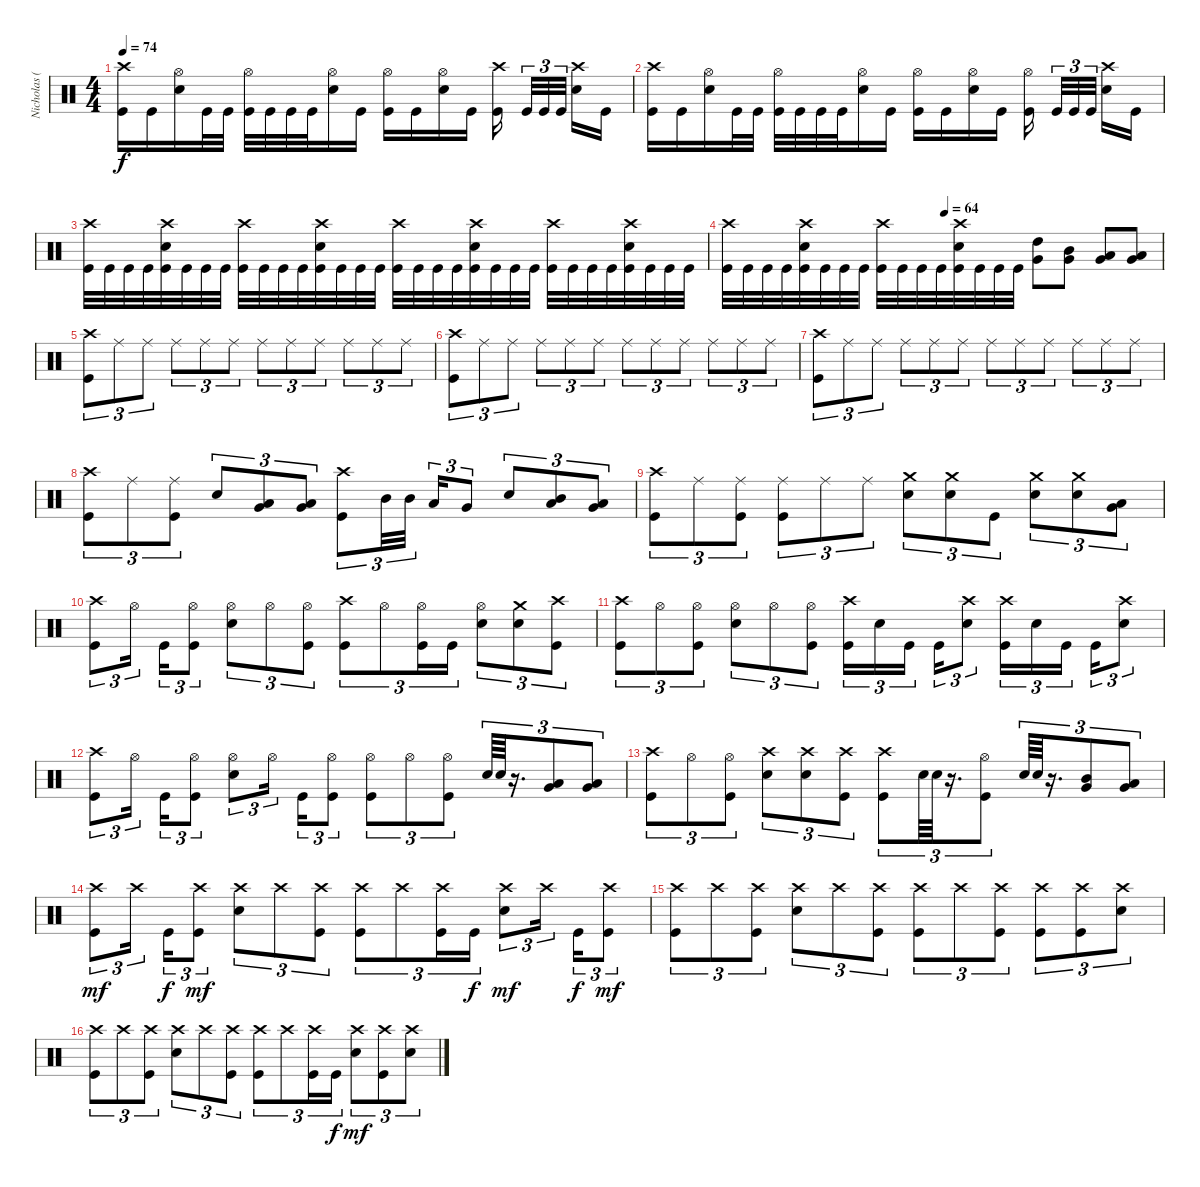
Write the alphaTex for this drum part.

\track ("Nicholas (Drums)" "Nicholas (") {instrument percussion}
\staff {score}
\articulation defaults
\ts (4 4)
\tempo 74
\clef neutral
\ks c
("Crash high (hit)" "Kick (hit)").16{dy f} "Kick (hit)".16 ("Hi-Hat (open)" "Electric Snare (hit)").16 "Kick (hit)".32 "Kick (hit)".32 ("Hi-Hat (open)" "Kick (hit)").32 "Kick (hit)".32 "Kick (hit)".32 "Kick (hit)".32 ("Hi-Hat (open)" "Electric Snare (hit)").16 "Kick (hit)".16 ("Hi-Hat (open)" "Kick (hit)").16 "Kick (hit)".16 ("Hi-Hat (open)" "Electric Snare (hit)").16 "Kick (hit)".16 ("Crash high (hit)" "Kick (hit)").16 "Kick (hit)".32{tu (3 2)} "Kick (hit)".32{tu (3 2)} "Kick (hit)".32{tu (3 2)} ("Crash high (hit)" "Electric Snare (hit)").16 "Kick (hit)".16 |
("Crash high (hit)" "Kick (hit)").16 "Kick (hit)".16 ("Hi-Hat (open)" "Electric Snare (hit)").16 "Kick (hit)".32 "Kick (hit)".32 ("Hi-Hat (open)" "Kick (hit)").32 "Kick (hit)".32 "Kick (hit)".32 "Kick (hit)".32 ("Hi-Hat (open)" "Electric Snare (hit)").16 "Kick (hit)".16 ("Hi-Hat (open)" "Kick (hit)").16 "Kick (hit)".16 ("Hi-Hat (open)" "Electric Snare (hit)").16 "Kick (hit)".16 ("Hi-Hat (open)" "Kick (hit)").16 "Kick (hit)".32{tu (3 2)} "Kick (hit)".32{tu (3 2)} "Kick (hit)".32{tu (3 2)} ("Crash high (hit)" "Electric Snare (hit)").16 "Kick (hit)".16 |
("Crash high (hit)" "Kick (hit)").32 "Kick (hit)".32 "Kick (hit)".32 "Kick (hit)".32 ("Crash high (hit)" "Electric Snare (hit)" "Kick (hit)").32 "Kick (hit)".32 "Kick (hit)".32 "Kick (hit)".32 ("Crash high (hit)" "Kick (hit)").32 "Kick (hit)".32 "Kick (hit)".32 "Kick (hit)".32 ("Crash high (hit)" "Electric Snare (hit)" "Kick (hit)").32 "Kick (hit)".32 "Kick (hit)".32 "Kick (hit)".32 ("Crash high (hit)" "Kick (hit)").32 "Kick (hit)".32 "Kick (hit)".32 "Kick (hit)".32 ("Crash high (hit)" "Electric Snare (hit)" "Kick (hit)").32 "Kick (hit)".32 "Kick (hit)".32 "Kick (hit)".32 ("Crash high (hit)" "Kick (hit)").32 "Kick (hit)".32 "Kick (hit)".32 "Kick (hit)".32 ("Crash high (hit)" "Electric Snare (hit)" "Kick (hit)").32 "Kick (hit)".32 "Kick (hit)".32 "Kick (hit)".32 |
\tempo (64 0.5)
("Crash high (hit)" "Kick (hit)").32 "Kick (hit)".32 "Kick (hit)".32 "Kick (hit)".32 ("Crash high (hit)" "Electric Snare (hit)" "Kick (hit)").32 "Kick (hit)".32 "Kick (hit)".32 "Kick (hit)".32 ("Crash high (hit)" "Kick (hit)").32 "Kick (hit)".32 "Kick (hit)".32 "Kick (hit)".32 ("Crash high (hit)" "Electric Snare (hit)" "Kick (hit)").32 "Kick (hit)".32 "Kick (hit)".32 "Kick (hit)".32 ("High Tom (hit)" "Very Low Tom (hit)").8{bd 60} ("Mid Tom (hit)" "Very Low Tom (hit)").8{bd 60} ("Low Tom (hit)" "Very Low Tom (hit)").8{bd 60} ("Low Tom (hit)" "Very Low Tom (hit)").8{bd 60} |
("Crash high (hit)" "Kick (hit)").8{tu (3 2)} "Ride (middle)".8{tu (3 2)} "Ride (middle)".8{tu (3 2)} "Ride (middle)".8{tu (3 2)} "Ride (middle)".8{tu (3 2)} "Ride (middle)".8{tu (3 2)} "Ride (middle)".8{tu (3 2)} "Ride (middle)".8{tu (3 2)} "Ride (middle)".8{tu (3 2)} "Ride (middle)".8{tu (3 2)} "Ride (middle)".8{tu (3 2)} "Ride (middle)".8{tu (3 2)} |
("Crash high (hit)" "Kick (hit)").8{tu (3 2)} "Ride (middle)".8{tu (3 2)} "Ride (middle)".8{tu (3 2)} "Ride (middle)".8{tu (3 2)} "Ride (middle)".8{tu (3 2)} "Ride (middle)".8{tu (3 2)} "Ride (middle)".8{tu (3 2)} "Ride (middle)".8{tu (3 2)} "Ride (middle)".8{tu (3 2)} "Ride (middle)".8{tu (3 2)} "Ride (middle)".8{tu (3 2)} "Ride (middle)".8{tu (3 2)} |
("Crash high (hit)" "Kick (hit)").8{tu (3 2)} "Ride (middle)".8{tu (3 2)} "Ride (middle)".8{tu (3 2)} "Ride (middle)".8{tu (3 2)} "Ride (middle)".8{tu (3 2)} "Ride (middle)".8{tu (3 2)} "Ride (middle)".8{tu (3 2)} "Ride (middle)".8{tu (3 2)} "Ride (middle)".8{tu (3 2)} "Ride (middle)".8{tu (3 2)} "Ride (middle)".8{tu (3 2)} "Ride (middle)".8{tu (3 2)} |
("Crash high (hit)" "Kick (hit)").8{tu (3 2)} "Ride (middle)".8{tu (3 2)} ("Ride (middle)" "Kick (hit)").8{tu (3 2)} "Electric Snare (hit)".8{tu (3 2)} ("Low Tom (hit)" "Very Low Tom (hit)").8{tu (3 2) bu 60} ("Low Tom (hit)" "Very Low Tom (hit)").8{tu (3 2) bu 60} ("Crash high (hit)" "Kick (hit)").8{tu (3 2)} "Mid Tom (hit)".32{tu (3 2)} "Mid Tom (hit)".32{tu (3 2)} "Low Tom (hit)".16{tu (3 2)} "Very Low Tom (hit)".8{tu (3 2)} "Electric Snare (hit)".8{tu (3 2)} ("Mid Tom (hit)" "Low Tom (hit)").8{tu (3 2) bu 60} ("Low Tom (hit)" "Very Low Tom (hit)").8{tu (3 2) bu 60} |
("Crash high (hit)" "Kick (hit)").8{tu (3 2)} "Ride (middle)".8{tu (3 2)} ("Ride (middle)" "Kick (hit)").8{tu (3 2)} ("Ride (middle)" "Kick (hit)").8{tu (3 2)} "Ride (middle)".8{tu (3 2)} "Ride (middle)".8{tu (3 2)} ("Crash medium (hit)" "Electric Snare (hit)").8{tu (3 2)} ("Crash medium (hit)" "Electric Snare (hit)").8{tu (3 2)} "Kick (hit)".8{tu (3 2)} ("Crash medium (hit)" "Electric Snare (hit)").8{tu (3 2)} ("Crash medium (hit)" "Electric Snare (hit)").8{tu (3 2)} ("Low Tom (hit)" "Very Low Tom (hit)").8{tu (3 2) bu 60} |
("Crash high (hit)" "Kick (hit)").8{tu (3 2)} "Hi-Hat (open)".16{tu (3 2)} "Kick (hit)".16{tu (3 2)} ("Hi-Hat (open)" "Kick (hit)").8{tu (3 2)} ("Hi-Hat (open)" "Electric Snare (hit)").8{tu (3 2)} "Hi-Hat (open)".8{tu (3 2)} ("Hi-Hat (open)" "Kick (hit)").8{tu (3 2)} ("Crash high (hit)" "Kick (hit)").8{tu (3 2)} "Hi-Hat (open)".8{tu (3 2)} ("Hi-Hat (open)" "Kick (hit)").16{tu (3 2)} "Kick (hit)".16{tu (3 2)} ("Hi-Hat (open)" "Electric Snare (hit)").8{tu (3 2)} ("Crash medium (hit)" "Electric Snare (hit)").8{tu (3 2)} ("Crash high (hit)" "Kick (hit)").8{tu (3 2)} |
("Crash high (hit)" "Kick (hit)").8{tu (3 2)} "Hi-Hat (open)".8{tu (3 2)} ("Hi-Hat (open)" "Kick (hit)").8{tu (3 2)} ("Hi-Hat (open)" "Electric Snare (hit)").8{tu (3 2)} "Hi-Hat (open)".8{tu (3 2)} ("Hi-Hat (open)" "Kick (hit)").8{tu (3 2)} ("Crash high (hit)" "Kick (hit)").16{tu (3 2)} "Electric Snare (hit)".16{tu (3 2)} "Kick (hit)".16{tu (3 2)} "Kick (hit)".16{tu (3 2)} ("Crash high (hit)" "Electric Snare (hit)").8{tu (3 2)} ("Crash high (hit)" "Kick (hit)").16{tu (3 2)} "Electric Snare (hit)".16{tu (3 2)} "Kick (hit)".16{tu (3 2)} "Kick (hit)".16{tu (3 2)} ("Crash high (hit)" "Electric Snare (hit)").8{tu (3 2)} |
("Crash high (hit)" "Kick (hit)").8{tu (3 2)} "Hi-Hat (open)".16{tu (3 2)} "Kick (hit)".16{tu (3 2)} ("Hi-Hat (open)" "Kick (hit)").8{tu (3 2)} ("Hi-Hat (open)" "Electric Snare (hit)").8{tu (3 2)} "Hi-Hat (open)".16{tu (3 2)} "Kick (hit)".16{tu (3 2)} ("Hi-Hat (open)" "Kick (hit)").8{tu (3 2)} ("Hi-Hat (open)" "Kick (hit)").8{tu (3 2)} "Hi-Hat (open)".8{tu (3 2)} ("Hi-Hat (open)" "Kick (hit)").8{tu (3 2)} "Electric Snare (hit)".64{tu (3 2)} "Electric Snare (hit)".64{tu (3 2)} r.16{d tu (3 2)} ("Low Tom (hit)" "Very Low Tom (hit)").8{tu (3 2) bu 60} ("Low Tom (hit)" "Very Low Tom (hit)").8{tu (3 2) bu 60} |
("Crash high (hit)" "Kick (hit)").8{tu (3 2)} "Hi-Hat (open)".8{tu (3 2)} ("Hi-Hat (open)" "Kick (hit)").8{tu (3 2)} ("Crash high (hit)" "Electric Snare (hit)").8{tu (3 2)} ("Crash high (hit)" "Electric Snare (hit)").8{tu (3 2)} ("Crash high (hit)" "Kick (hit)").8{tu (3 2)} ("Crash high (hit)" "Kick (hit)").8{tu (3 2)} "Electric Snare (hit)".64{tu (3 2)} "Electric Snare (hit)".64{tu (3 2)} r.16{d tu (3 2)} ("Hi-Hat (open)" "Kick (hit)").8{tu (3 2)} "Electric Snare (hit)".64{tu (3 2)} "Electric Snare (hit)".64{tu (3 2)} r.16{d tu (3 2)} ("Mid Tom (hit)" "Very Low Tom (hit)").8{tu (3 2) bu 60} ("Low Tom (hit)" "Very Low Tom (hit)").8{tu (3 2) bu 60} |
("Crash high (hit)" "Kick (hit)").8{tu (3 2) dy mf} "Crash high (hit)".16{tu (3 2)} "Kick (hit)".16{tu (3 2) dy f} ("Crash high (hit)" "Kick (hit)").8{tu (3 2) dy mf} ("Crash high (hit)" "Electric Snare (hit)").8{tu (3 2)} "Crash high (hit)".8{tu (3 2)} ("Crash high (hit)" "Kick (hit)").8{tu (3 2)} ("Crash high (hit)" "Kick (hit)").8{tu (3 2)} "Crash high (hit)".8{tu (3 2)} ("Crash high (hit)" "Kick (hit)").16{tu (3 2)} "Kick (hit)".16{tu (3 2) dy f} ("Crash high (hit)" "Electric Snare (hit)").8{tu (3 2) dy mf} "Crash high (hit)".16{tu (3 2)} "Kick (hit)".16{tu (3 2) dy f} ("Crash high (hit)" "Kick (hit)").8{tu (3 2) dy mf} |
("Crash high (hit)" "Kick (hit)").8{tu (3 2)} "Crash high (hit)".8{tu (3 2)} ("Crash high (hit)" "Kick (hit)").8{tu (3 2)} ("Crash high (hit)" "Electric Snare (hit)").8{tu (3 2)} "Crash high (hit)".8{tu (3 2)} ("Crash high (hit)" "Kick (hit)").8{tu (3 2)} ("Crash high (hit)" "Kick (hit)").8{tu (3 2)} "Crash high (hit)".8{tu (3 2)} ("Crash high (hit)" "Kick (hit)").8{tu (3 2)} ("Crash high (hit)" "Kick (hit)").8{tu (3 2)} ("Crash high (hit)" "Kick (hit)").8{tu (3 2)} ("Crash high (hit)" "Electric Snare (hit)").8{tu (3 2)} |
("Crash high (hit)" "Kick (hit)").8{tu (3 2)} "Crash high (hit)".8{tu (3 2)} ("Crash high (hit)" "Kick (hit)").8{tu (3 2)} ("Crash high (hit)" "Electric Snare (hit)").8{tu (3 2)} "Crash high (hit)".8{tu (3 2)} ("Crash high (hit)" "Kick (hit)").8{tu (3 2)} ("Crash high (hit)" "Kick (hit)").8{tu (3 2)} "Crash high (hit)".8{tu (3 2)} ("Crash high (hit)" "Kick (hit)").16{tu (3 2)} "Kick (hit)".16{tu (3 2) dy f} ("Crash high (hit)" "Electric Snare (hit)").8{tu (3 2) dy mf} ("Crash high (hit)" "Kick (hit)").8{tu (3 2)} ("Crash high (hit)" "Electric Snare (hit)").8{tu (3 2)}
